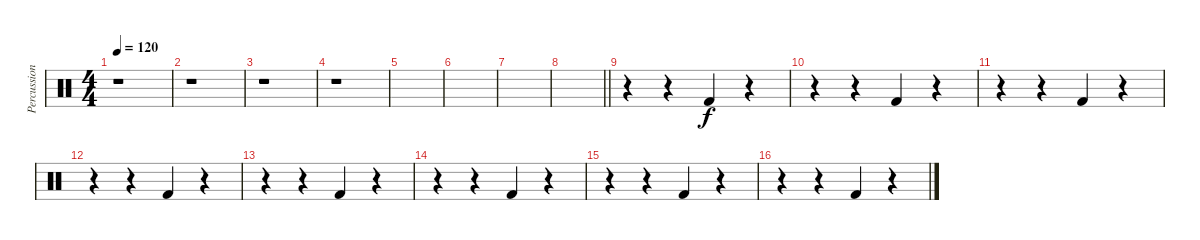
\track ("Percussion II" "Percussion") {instrument percussion}
\staff {score}
\articulation defaults
\ts (4 4)
\tempo 120
\clef neutral
\ks aminor
r.1{dy f} |
r.1 |
r.1 |
r.1 |
|
|
|
\barLineRight lightlight
|
r.4 r.4 "Kick (hit) 2".4 r.4 |
r.4 r.4 "Kick (hit) 2".4 r.4 |
r.4 r.4 "Kick (hit) 2".4 r.4 |
r.4 r.4 "Kick (hit) 2".4 r.4 |
r.4 r.4 "Kick (hit) 2".4 r.4 |
r.4 r.4 "Kick (hit) 2".4 r.4 |
r.4 r.4 "Kick (hit) 2".4 r.4 |
r.4 r.4 "Kick (hit) 2".4 r.4
